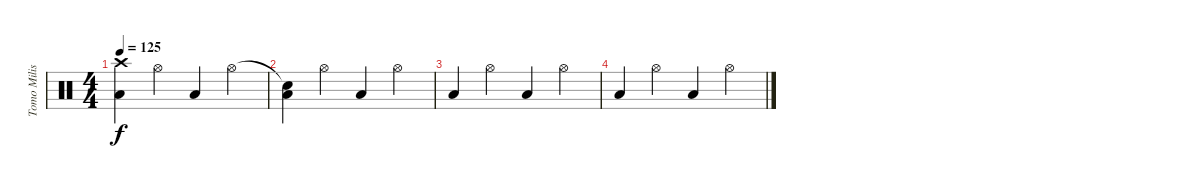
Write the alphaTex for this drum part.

\track ("Tomo Milisevic" "Tomo Milis") {instrument percussion}
\staff {score}
\articulation defaults
\ts (4 4)
\tempo 125
\clef neutral
\ks c
("Crash high (hit)" "Low Floor Tom (hit)").4{dy f} "Hi-Hat (open)".4 "Low Floor Tom (hit)".4 "Hi-Hat (open)".4 |
("Snare (hit)"{t} "Low Floor Tom (hit)").4 "Hi-Hat (open)".4 "Low Floor Tom (hit)".4 "Hi-Hat (open)".4 |
"Low Floor Tom (hit)".4 "Hi-Hat (open)".4 "Low Floor Tom (hit)".4 "Hi-Hat (open)".4 |
"Low Floor Tom (hit)".4 "Hi-Hat (open)".4 "Low Floor Tom (hit)".4 "Hi-Hat (open)".4
